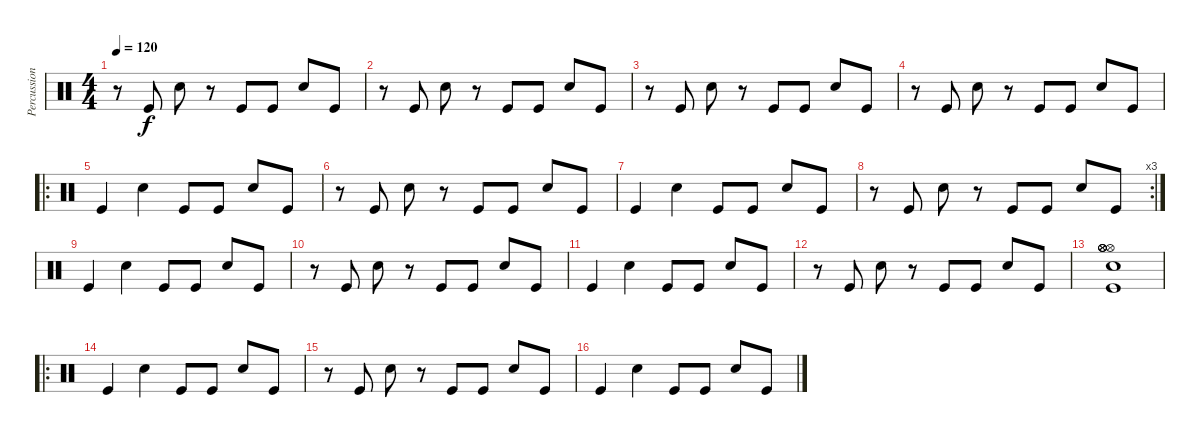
\track ("Percussions" "Percussion") {instrument percussion}
\staff {score}
\articulation defaults
\ts (4 4)
\tempo 120
\clef neutral
\ks c
r.8{dy f} "Kick (hit)".8 "Electric Snare (hit)".8 r.8 "Kick (hit)".8 "Kick (hit)".8 "Electric Snare (hit)".8 "Kick (hit)".8 |
r.8 "Kick (hit)".8 "Electric Snare (hit)".8 r.8 "Kick (hit)".8 "Kick (hit)".8 "Electric Snare (hit)".8 "Kick (hit)".8 |
r.8 "Kick (hit)".8 "Electric Snare (hit)".8 r.8 "Kick (hit)".8 "Kick (hit)".8 "Electric Snare (hit)".8 "Kick (hit)".8 |
r.8 "Kick (hit)".8 "Electric Snare (hit)".8 r.8 "Kick (hit)".8 "Kick (hit)".8 "Electric Snare (hit)".8 "Kick (hit)".8 |
\ro "Kick (hit)".4 "Electric Snare (hit)".4 "Kick (hit)".8 "Kick (hit)".8 "Electric Snare (hit)".8 "Kick (hit)".8
|
r.8 "Kick (hit)".8 "Electric Snare (hit)".8 r.8 "Kick (hit)".8 "Kick (hit)".8 "Electric Snare (hit)".8 "Kick (hit)".8 |
"Kick (hit)".4 "Electric Snare (hit)".4 "Kick (hit)".8 "Kick (hit)".8 "Electric Snare (hit)".8 "Kick (hit)".8 |
\rc 3
r.8 "Kick (hit)".8 "Electric Snare (hit)".8 r.8 "Kick (hit)".8 "Kick (hit)".8 "Electric Snare (hit)".8 "Kick (hit)".8 |
"Kick (hit)".4 "Electric Snare (hit)".4 "Kick (hit)".8 "Kick (hit)".8 "Electric Snare (hit)".8 "Kick (hit)".8 |
r.8 "Kick (hit)".8 "Electric Snare (hit)".8 r.8 "Kick (hit)".8 "Kick (hit)".8 "Electric Snare (hit)".8 "Kick (hit)".8 |
"Kick (hit)".4 "Electric Snare (hit)".4 "Kick (hit)".8 "Kick (hit)".8 "Electric Snare (hit)".8 "Kick (hit)".8 |
r.8 "Kick (hit)".8 "Electric Snare (hit)".8 r.8 "Kick (hit)".8 "Kick (hit)".8 "Electric Snare (hit)".8 "Kick (hit)".8 |
("Hi-Hat (open)" "Hi-Hat (open)" "Electric Snare (hit)" "Kick (hit)" "Hi-Hat (open)" "Hi-Hat (open)").1 |
\ro "Kick (hit)".4 "Electric Snare (hit)".4 "Kick (hit)".8 "Kick (hit)".8 "Electric Snare (hit)".8 "Kick (hit)".8
|
r.8 "Kick (hit)".8 "Electric Snare (hit)".8 r.8 "Kick (hit)".8 "Kick (hit)".8 "Electric Snare (hit)".8 "Kick (hit)".8 |
"Kick (hit)".4 "Electric Snare (hit)".4 "Kick (hit)".8 "Kick (hit)".8 "Electric Snare (hit)".8 "Kick (hit)".8
